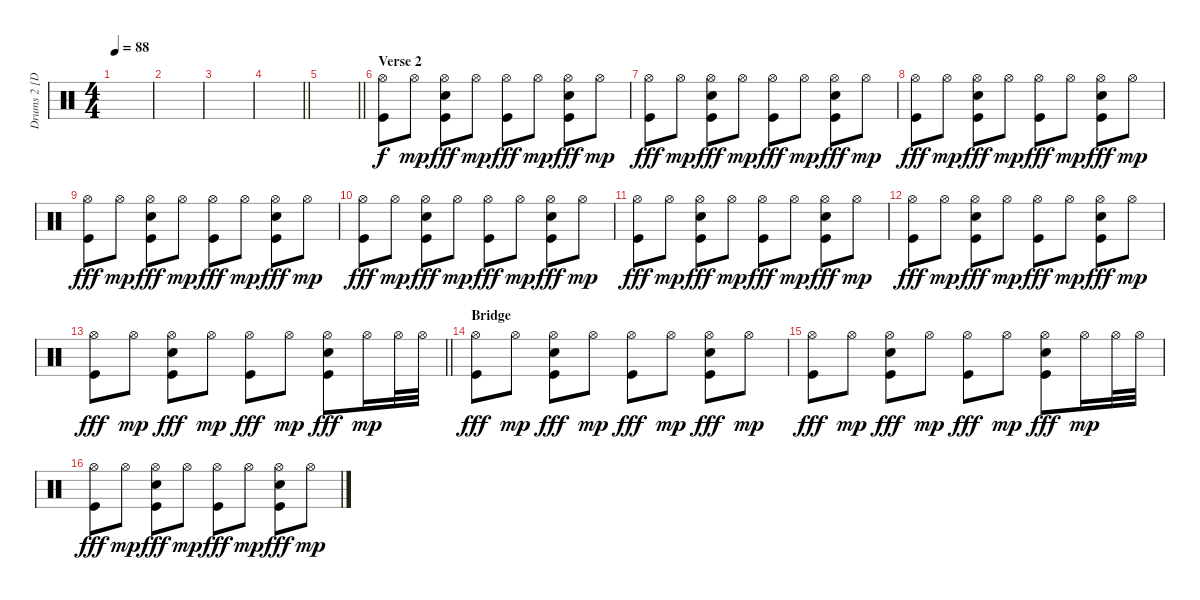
\track ("Drums 2 [Doom]" "Drums 2 [D") {instrument percussion}
\staff {score}
\articulation defaults
\ts (4 4)
\tempo 88
\clef neutral
\ks c
|
|
|
\barLineRight lightlight
|
\barLineRight lightlight
|
\section ("" "Verse 2")
("Hi-Hat (open)" "Kick (hit)").8 "Hi-Hat (open)".8{dy mp} ("Hi-Hat (open)" "Snare (hit) 2" "Kick (hit)").8{dy fff} "Hi-Hat (open)".8{dy mp} ("Hi-Hat (open)" "Kick (hit)").8{dy fff} "Hi-Hat (open)".8{dy mp} ("Hi-Hat (open)" "Snare (hit) 2" "Kick (hit)").8{dy fff} "Hi-Hat (open)".8{dy mp} |
("Hi-Hat (open)" "Kick (hit)").8{dy fff} "Hi-Hat (open)".8{dy mp} ("Hi-Hat (open)" "Snare (hit) 2" "Kick (hit)").8{dy fff} "Hi-Hat (open)".8{dy mp} ("Hi-Hat (open)" "Kick (hit)").8{dy fff} "Hi-Hat (open)".8{dy mp} ("Hi-Hat (open)" "Snare (hit) 2" "Kick (hit)").8{dy fff} "Hi-Hat (open)".8{dy mp} |
("Hi-Hat (open)" "Kick (hit)").8{dy fff} "Hi-Hat (open)".8{dy mp} ("Hi-Hat (open)" "Snare (hit) 2" "Kick (hit)").8{dy fff} "Hi-Hat (open)".8{dy mp} ("Hi-Hat (open)" "Kick (hit)").8{dy fff} "Hi-Hat (open)".8{dy mp} ("Hi-Hat (open)" "Snare (hit) 2" "Kick (hit)").8{dy fff} "Hi-Hat (open)".8{dy mp} |
("Hi-Hat (open)" "Kick (hit)").8{dy fff} "Hi-Hat (open)".8{dy mp} ("Hi-Hat (open)" "Snare (hit) 2" "Kick (hit)").8{dy fff} "Hi-Hat (open)".8{dy mp} ("Hi-Hat (open)" "Kick (hit)").8{dy fff} "Hi-Hat (open)".8{dy mp} ("Hi-Hat (open)" "Snare (hit) 2" "Kick (hit)").8{dy fff} "Hi-Hat (open)".8{dy mp} |
("Hi-Hat (open)" "Kick (hit)").8{dy fff} "Hi-Hat (open)".8{dy mp} ("Hi-Hat (open)" "Snare (hit) 2" "Kick (hit)").8{dy fff} "Hi-Hat (open)".8{dy mp} ("Hi-Hat (open)" "Kick (hit)").8{dy fff} "Hi-Hat (open)".8{dy mp} ("Hi-Hat (open)" "Snare (hit) 2" "Kick (hit)").8{dy fff} "Hi-Hat (open)".8{dy mp} |
("Hi-Hat (open)" "Kick (hit)").8{dy fff} "Hi-Hat (open)".8{dy mp} ("Hi-Hat (open)" "Snare (hit) 2" "Kick (hit)").8{dy fff} "Hi-Hat (open)".8{dy mp} ("Hi-Hat (open)" "Kick (hit)").8{dy fff} "Hi-Hat (open)".8{dy mp} ("Hi-Hat (open)" "Snare (hit) 2" "Kick (hit)").8{dy fff} "Hi-Hat (open)".8{dy mp} |
("Hi-Hat (open)" "Kick (hit)").8{dy fff} "Hi-Hat (open)".8{dy mp} ("Hi-Hat (open)" "Snare (hit) 2" "Kick (hit)").8{dy fff} "Hi-Hat (open)".8{dy mp} ("Hi-Hat (open)" "Kick (hit)").8{dy fff} "Hi-Hat (open)".8{dy mp} ("Hi-Hat (open)" "Snare (hit) 2" "Kick (hit)").8{dy fff} "Hi-Hat (open)".8{dy mp} |
\barLineRight lightlight
("Hi-Hat (open)" "Kick (hit)").8{dy fff} "Hi-Hat (open)".8{dy mp} ("Hi-Hat (open)" "Snare (hit) 2" "Kick (hit)").8{dy fff} "Hi-Hat (open)".8{dy mp} ("Hi-Hat (open)" "Kick (hit)").8{dy fff} "Hi-Hat (open)".8{dy mp} ("Hi-Hat (open)" "Snare (hit) 2" "Kick (hit)").8{dy fff} "Hi-Hat (open)".16{dy mp} "Hi-Hat (open)".32 "Hi-Hat (open)".32 |
\section ("" "Bridge")
("Hi-Hat (open)" "Kick (hit)").8{dy fff} "Hi-Hat (open)".8{dy mp} ("Hi-Hat (open)" "Snare (hit) 2" "Kick (hit)").8{dy fff} "Hi-Hat (open)".8{dy mp} ("Hi-Hat (open)" "Kick (hit)").8{dy fff} "Hi-Hat (open)".8{dy mp} ("Hi-Hat (open)" "Snare (hit) 2" "Kick (hit)").8{dy fff} "Hi-Hat (open)".8{dy mp} |
("Hi-Hat (open)" "Kick (hit)").8{dy fff} "Hi-Hat (open)".8{dy mp} ("Hi-Hat (open)" "Snare (hit) 2" "Kick (hit)").8{dy fff} "Hi-Hat (open)".8{dy mp} ("Hi-Hat (open)" "Kick (hit)").8{dy fff} "Hi-Hat (open)".8{dy mp} ("Hi-Hat (open)" "Snare (hit) 2" "Kick (hit)").8{dy fff} "Hi-Hat (open)".16{dy mp} "Hi-Hat (open)".32 "Hi-Hat (open)".32 |
("Hi-Hat (open)" "Kick (hit)").8{dy fff} "Hi-Hat (open)".8{dy mp} ("Hi-Hat (open)" "Snare (hit) 2" "Kick (hit)").8{dy fff} "Hi-Hat (open)".8{dy mp} ("Hi-Hat (open)" "Kick (hit)").8{dy fff} "Hi-Hat (open)".8{dy mp} ("Hi-Hat (open)" "Snare (hit) 2" "Kick (hit)").8{dy fff} "Hi-Hat (open)".8{dy mp}
